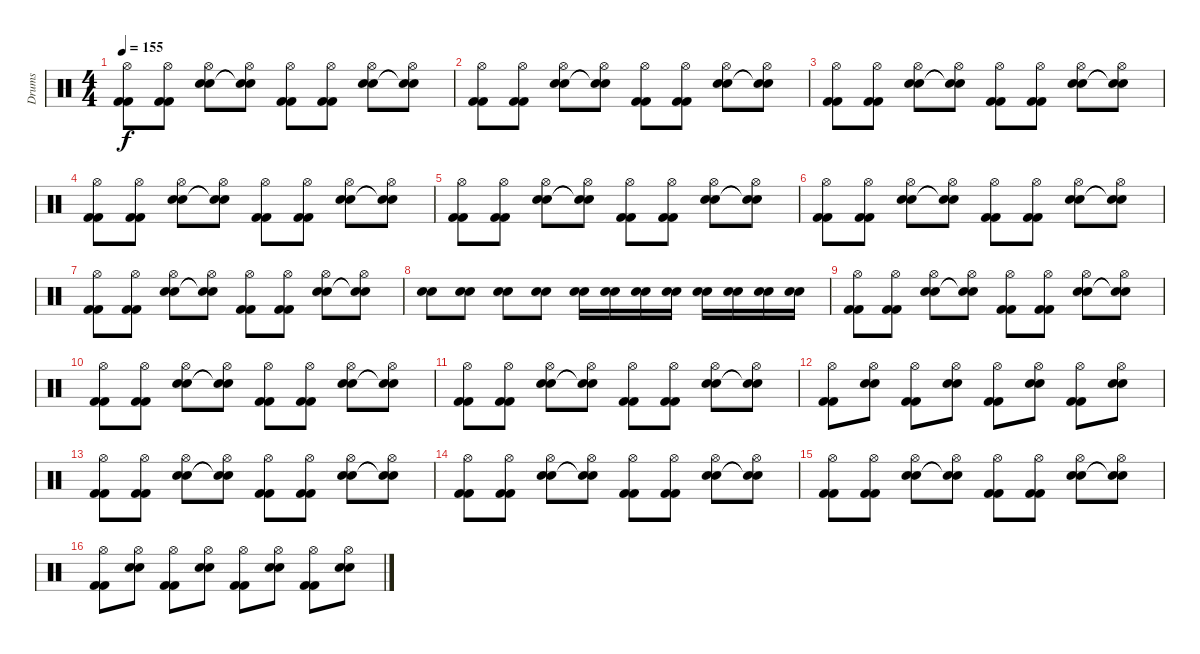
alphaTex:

\track ("Drums" "Drums") {instrument percussion}
\staff {score}
\articulation defaults
\ts (4 4)
\tempo 155
\clef neutral
\ks c
("Hi-Hat (open)" "Kick (hit) 2" "Kick (hit) 2").8{dy f} ("Hi-Hat (open)" "Kick (hit) 2" "Kick (hit) 2").8 ("Hi-Hat (open)" "Electric Snare (hit)" "Electric Snare (hit)").8 ("Hi-Hat (open)" "Snare (hit)"{t} "Snare (hit)"{t}).8 ("Hi-Hat (open)" "Kick (hit) 2" "Kick (hit) 2").8 ("Hi-Hat (open)" "Kick (hit) 2" "Kick (hit) 2").8 ("Hi-Hat (open)" "Electric Snare (hit)" "Electric Snare (hit)").8 ("Hi-Hat (open)" "Snare (hit)"{t} "Snare (hit)"{t}).8 |
("Hi-Hat (open)" "Kick (hit) 2" "Kick (hit) 2").8 ("Hi-Hat (open)" "Kick (hit) 2" "Kick (hit) 2").8 ("Hi-Hat (open)" "Electric Snare (hit)" "Electric Snare (hit)").8 ("Hi-Hat (open)" "Snare (hit)"{t} "Snare (hit)"{t}).8 ("Hi-Hat (open)" "Kick (hit) 2" "Kick (hit) 2").8 ("Hi-Hat (open)" "Kick (hit) 2" "Kick (hit) 2").8 ("Hi-Hat (open)" "Electric Snare (hit)" "Electric Snare (hit)").8 ("Hi-Hat (open)" "Snare (hit)"{t} "Snare (hit)"{t}).8 |
("Hi-Hat (open)" "Kick (hit) 2" "Kick (hit) 2").8 ("Hi-Hat (open)" "Kick (hit) 2" "Kick (hit) 2").8 ("Hi-Hat (open)" "Electric Snare (hit)" "Electric Snare (hit)").8 ("Hi-Hat (open)" "Snare (hit)"{t} "Snare (hit)"{t}).8 ("Hi-Hat (open)" "Kick (hit) 2" "Kick (hit) 2").8 ("Hi-Hat (open)" "Kick (hit) 2" "Kick (hit) 2").8 ("Hi-Hat (open)" "Electric Snare (hit)" "Electric Snare (hit)").8 ("Hi-Hat (open)" "Snare (hit)"{t} "Snare (hit)"{t}).8 |
("Hi-Hat (open)" "Kick (hit) 2" "Kick (hit) 2").8 ("Hi-Hat (open)" "Kick (hit) 2" "Kick (hit) 2").8 ("Hi-Hat (open)" "Electric Snare (hit)" "Electric Snare (hit)").8 ("Hi-Hat (open)" "Snare (hit)"{t} "Snare (hit)"{t}).8 ("Hi-Hat (open)" "Kick (hit) 2" "Kick (hit) 2").8 ("Hi-Hat (open)" "Kick (hit) 2" "Kick (hit) 2").8 ("Hi-Hat (open)" "Electric Snare (hit)" "Electric Snare (hit)").8 ("Hi-Hat (open)" "Snare (hit)"{t} "Snare (hit)"{t}).8 |
("Hi-Hat (open)" "Kick (hit) 2" "Kick (hit) 2").8 ("Hi-Hat (open)" "Kick (hit) 2" "Kick (hit) 2").8 ("Hi-Hat (open)" "Electric Snare (hit)" "Electric Snare (hit)").8 ("Hi-Hat (open)" "Snare (hit)"{t} "Snare (hit)"{t}).8 ("Hi-Hat (open)" "Kick (hit) 2" "Kick (hit) 2").8 ("Hi-Hat (open)" "Kick (hit) 2" "Kick (hit) 2").8 ("Hi-Hat (open)" "Electric Snare (hit)" "Electric Snare (hit)").8 ("Hi-Hat (open)" "Snare (hit)"{t} "Snare (hit)"{t}).8 |
("Hi-Hat (open)" "Kick (hit) 2" "Kick (hit) 2").8 ("Hi-Hat (open)" "Kick (hit) 2" "Kick (hit) 2").8 ("Hi-Hat (open)" "Electric Snare (hit)" "Electric Snare (hit)").8 ("Hi-Hat (open)" "Snare (hit)"{t} "Snare (hit)"{t}).8 ("Hi-Hat (open)" "Kick (hit) 2" "Kick (hit) 2").8 ("Hi-Hat (open)" "Kick (hit) 2" "Kick (hit) 2").8 ("Hi-Hat (open)" "Electric Snare (hit)" "Electric Snare (hit)").8 ("Hi-Hat (open)" "Snare (hit)"{t} "Snare (hit)"{t}).8 |
("Hi-Hat (open)" "Kick (hit) 2" "Kick (hit) 2").8 ("Hi-Hat (open)" "Kick (hit) 2" "Kick (hit) 2").8 ("Hi-Hat (open)" "Electric Snare (hit)" "Electric Snare (hit)").8 ("Hi-Hat (open)" "Snare (hit)"{t} "Snare (hit)"{t}).8 ("Hi-Hat (open)" "Kick (hit) 2" "Kick (hit) 2").8 ("Hi-Hat (open)" "Kick (hit) 2" "Kick (hit) 2").8 ("Hi-Hat (open)" "Electric Snare (hit)" "Electric Snare (hit)").8 ("Hi-Hat (open)" "Snare (hit)"{t} "Snare (hit)"{t}).8 |
("Electric Snare (hit)" "Electric Snare (hit)").8 ("Electric Snare (hit)" "Electric Snare (hit)").8 ("Electric Snare (hit)" "Electric Snare (hit)").8 ("Electric Snare (hit)" "Electric Snare (hit)").8 ("Electric Snare (hit)" "Electric Snare (hit)").16 ("Electric Snare (hit)" "Electric Snare (hit)").16 ("Electric Snare (hit)" "Electric Snare (hit)").16 ("Electric Snare (hit)" "Electric Snare (hit)").16 ("Electric Snare (hit)" "Electric Snare (hit)").16 ("Electric Snare (hit)" "Electric Snare (hit)").16 ("Electric Snare (hit)" "Electric Snare (hit)").16 ("Electric Snare (hit)" "Electric Snare (hit)").16 |
("Hi-Hat (open)" "Kick (hit) 2" "Kick (hit) 2").8 ("Hi-Hat (open)" "Kick (hit) 2" "Kick (hit) 2").8 ("Hi-Hat (open)" "Electric Snare (hit)" "Electric Snare (hit)").8 ("Hi-Hat (open)" "Snare (hit)"{t} "Snare (hit)"{t}).8 ("Hi-Hat (open)" "Kick (hit) 2" "Kick (hit) 2").8 ("Hi-Hat (open)" "Kick (hit) 2" "Kick (hit) 2").8 ("Hi-Hat (open)" "Electric Snare (hit)" "Electric Snare (hit)").8 ("Hi-Hat (open)" "Snare (hit)"{t} "Snare (hit)"{t}).8 |
("Hi-Hat (open)" "Kick (hit) 2" "Kick (hit) 2").8 ("Hi-Hat (open)" "Kick (hit) 2" "Kick (hit) 2").8 ("Hi-Hat (open)" "Electric Snare (hit)" "Electric Snare (hit)").8 ("Hi-Hat (open)" "Snare (hit)"{t} "Snare (hit)"{t}).8 ("Hi-Hat (open)" "Kick (hit) 2" "Kick (hit) 2").8 ("Hi-Hat (open)" "Kick (hit) 2" "Kick (hit) 2").8 ("Hi-Hat (open)" "Electric Snare (hit)" "Electric Snare (hit)").8 ("Hi-Hat (open)" "Snare (hit)"{t} "Snare (hit)"{t}).8 |
("Hi-Hat (open)" "Kick (hit) 2" "Kick (hit) 2").8 ("Hi-Hat (open)" "Kick (hit) 2" "Kick (hit) 2").8 ("Hi-Hat (open)" "Electric Snare (hit)" "Electric Snare (hit)").8 ("Hi-Hat (open)" "Snare (hit)"{t} "Snare (hit)"{t}).8 ("Hi-Hat (open)" "Kick (hit) 2" "Kick (hit) 2").8 ("Hi-Hat (open)" "Kick (hit) 2" "Kick (hit) 2").8 ("Hi-Hat (open)" "Electric Snare (hit)" "Electric Snare (hit)").8 ("Hi-Hat (open)" "Snare (hit)"{t} "Snare (hit)"{t}).8 |
("Hi-Hat (open)" "Kick (hit) 2" "Kick (hit) 2").8 ("Hi-Hat (open)" "Electric Snare (hit)" "Electric Snare (hit)").8 ("Hi-Hat (open)" "Kick (hit) 2" "Kick (hit) 2").8 ("Hi-Hat (open)" "Electric Snare (hit)" "Electric Snare (hit)").8 ("Hi-Hat (open)" "Kick (hit) 2" "Kick (hit) 2").8 ("Hi-Hat (open)" "Electric Snare (hit)" "Electric Snare (hit)").8 ("Hi-Hat (open)" "Kick (hit) 2" "Kick (hit) 2").8 ("Hi-Hat (open)" "Electric Snare (hit)" "Electric Snare (hit)").8 |
("Hi-Hat (open)" "Kick (hit) 2" "Kick (hit) 2").8 ("Hi-Hat (open)" "Kick (hit) 2" "Kick (hit) 2").8 ("Hi-Hat (open)" "Electric Snare (hit)" "Electric Snare (hit)").8 ("Hi-Hat (open)" "Snare (hit)"{t} "Snare (hit)"{t}).8 ("Hi-Hat (open)" "Kick (hit) 2" "Kick (hit) 2").8 ("Hi-Hat (open)" "Kick (hit) 2" "Kick (hit) 2").8 ("Hi-Hat (open)" "Electric Snare (hit)" "Electric Snare (hit)").8 ("Hi-Hat (open)" "Snare (hit)"{t} "Snare (hit)"{t}).8 |
("Hi-Hat (open)" "Kick (hit) 2" "Kick (hit) 2").8 ("Hi-Hat (open)" "Kick (hit) 2" "Kick (hit) 2").8 ("Hi-Hat (open)" "Electric Snare (hit)" "Electric Snare (hit)").8 ("Hi-Hat (open)" "Snare (hit)"{t} "Snare (hit)"{t}).8 ("Hi-Hat (open)" "Kick (hit) 2" "Kick (hit) 2").8 ("Hi-Hat (open)" "Kick (hit) 2" "Kick (hit) 2").8 ("Hi-Hat (open)" "Electric Snare (hit)" "Electric Snare (hit)").8 ("Hi-Hat (open)" "Snare (hit)"{t} "Snare (hit)"{t}).8 |
("Hi-Hat (open)" "Kick (hit) 2" "Kick (hit) 2").8 ("Hi-Hat (open)" "Kick (hit) 2" "Kick (hit) 2").8 ("Hi-Hat (open)" "Electric Snare (hit)" "Electric Snare (hit)").8 ("Hi-Hat (open)" "Snare (hit)"{t} "Snare (hit)"{t}).8 ("Hi-Hat (open)" "Kick (hit) 2" "Kick (hit) 2").8 ("Hi-Hat (open)" "Kick (hit) 2" "Kick (hit) 2").8 ("Hi-Hat (open)" "Electric Snare (hit)" "Electric Snare (hit)").8 ("Hi-Hat (open)" "Snare (hit)"{t} "Snare (hit)"{t}).8 |
("Hi-Hat (open)" "Kick (hit) 2" "Kick (hit) 2").8 ("Hi-Hat (open)" "Electric Snare (hit)" "Electric Snare (hit)").8 ("Hi-Hat (open)" "Kick (hit) 2" "Kick (hit) 2").8 ("Hi-Hat (open)" "Electric Snare (hit)" "Electric Snare (hit)").8 ("Hi-Hat (open)" "Kick (hit) 2" "Kick (hit) 2").8 ("Hi-Hat (open)" "Electric Snare (hit)" "Electric Snare (hit)").8 ("Hi-Hat (open)" "Kick (hit) 2" "Kick (hit) 2").8 ("Hi-Hat (open)" "Electric Snare (hit)" "Electric Snare (hit)").8
